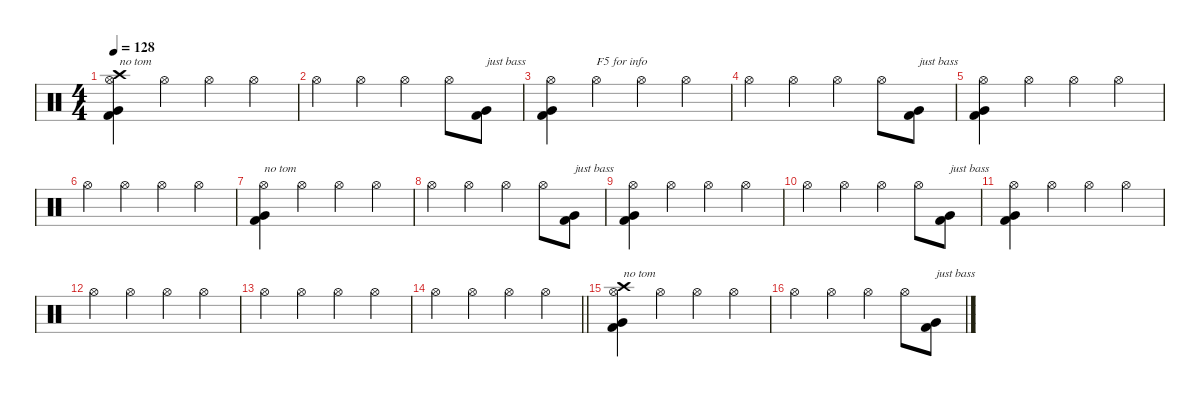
\defaultSystemsLayout 4
\hideDynamics
\bracketExtendMode nobrackets
\singleTrackTrackNamePolicy hidden
\multiTrackTrackNamePolicy hidden
\otherSystemsTrackNameOrientation horizontal
\track ("Drums" "drm.") {instrument percussion}
\staff {score}
\articulation defaults
\ts (4 4)
\beaming (8 2 2 2 2)
\tempo 128
\clef neutral
\ks c
("Crash high (hit)" "Hi-Hat (open)" "Very Low Tom (hit)" "Kick (hit) 2").4{txt "no tom " dy f beam Down} "Hi-Hat (open)".4{beam Down} "Hi-Hat (open)".4{beam Down} "Hi-Hat (open)".4{beam Down} |
"Hi-Hat (open)".4{beam Down} "Hi-Hat (open)".4{beam Down} "Hi-Hat (open)".4{beam Down} "Hi-Hat (open)".8{beam Down} ("Very Low Tom (hit)" "Kick (hit) 2").8{txt "just bass" beam Down} |
("Hi-Hat (open)" "Very Low Tom (hit)" "Kick (hit) 2").4{beam Down} "Hi-Hat (open)".4{txt "F5 for info" beam Down} "Hi-Hat (open)".4{beam Down} "Hi-Hat (open)".4{beam Down} |
"Hi-Hat (open)".4{beam Down} "Hi-Hat (open)".4{beam Down} "Hi-Hat (open)".4{beam Down} "Hi-Hat (open)".8{beam Down} ("Very Low Tom (hit)" "Kick (hit) 2").8{txt "just bass" beam Down} |
("Hi-Hat (open)" "Very Low Tom (hit)" "Kick (hit) 2").4{beam Down} "Hi-Hat (open)".4{beam Down} "Hi-Hat (open)".4{beam Down} "Hi-Hat (open)".4{beam Down} |
"Hi-Hat (open)".4{beam Down} "Hi-Hat (open)".4{beam Down} "Hi-Hat (open)".4{beam Down} "Hi-Hat (open)".4{beam Down} |
("Hi-Hat (open)" "Very Low Tom (hit)" "Kick (hit) 2").4{txt "no tom" beam Down} "Hi-Hat (open)".4{beam Down} "Hi-Hat (open)".4{beam Down} "Hi-Hat (open)".4{beam Down} |
"Hi-Hat (open)".4{beam Down} "Hi-Hat (open)".4{beam Down} "Hi-Hat (open)".4{beam Down} "Hi-Hat (open)".8{beam Down} ("Very Low Tom (hit)" "Kick (hit) 2").8{txt "just bass" beam Down} |
("Hi-Hat (open)" "Very Low Tom (hit)" "Kick (hit) 2").4{beam Down} "Hi-Hat (open)".4{beam Down} "Hi-Hat (open)".4{beam Down} "Hi-Hat (open)".4{beam Down} |
"Hi-Hat (open)".4{beam Down} "Hi-Hat (open)".4{beam Down} "Hi-Hat (open)".4{beam Down} "Hi-Hat (open)".8{beam Down} ("Very Low Tom (hit)" "Kick (hit) 2").8{txt "just bass" beam Down} |
("Hi-Hat (open)" "Very Low Tom (hit)" "Kick (hit) 2").4{beam Down} "Hi-Hat (open)".4{beam Down} "Hi-Hat (open)".4{beam Down} "Hi-Hat (open)".4{beam Down} |
"Hi-Hat (open)".4{beam Down} "Hi-Hat (open)".4{beam Down} "Hi-Hat (open)".4{beam Down} "Hi-Hat (open)".4{beam Down} |
"Hi-Hat (open)".4{beam Down} "Hi-Hat (open)".4{beam Down} "Hi-Hat (open)".4{beam Down} "Hi-Hat (open)".4{beam Down} |
\barLineRight lightlight "Hi-Hat (open)".4{beam Down} "Hi-Hat (open)".4{beam Down} "Hi-Hat (open)".4{beam Down} "Hi-Hat (open)".4{beam Down}
|
("Crash high (hit)" "Hi-Hat (open)" "Very Low Tom (hit)" "Kick (hit) 2").4{txt "no tom " beam Down} "Hi-Hat (open)".4{beam Down} "Hi-Hat (open)".4{beam Down} "Hi-Hat (open)".4{beam Down} |
"Hi-Hat (open)".4{beam Down} "Hi-Hat (open)".4{beam Down} "Hi-Hat (open)".4{beam Down} "Hi-Hat (open)".8{beam Down} ("Very Low Tom (hit)" "Kick (hit) 2").8{txt "just bass" beam Down}
